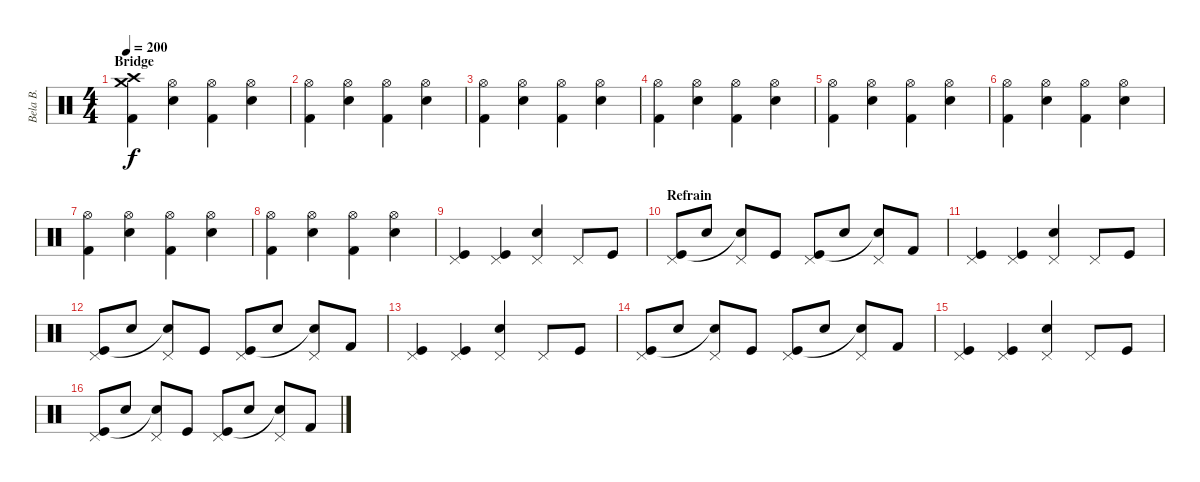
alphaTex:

\track ("Bela B. " "Bela B. ") {instrument percussion}
\staff {score}
\articulation defaults
\ts (4 4)
\section ("" "Bridge")
\tempo 200
\clef neutral
\ks c
("Crash high (hit)" "Crash medium (hit)" "Kick (hit) 2").4{dy f} ("Hi-Hat (open)" "Snare (hit) 2").4 ("Hi-Hat (open)" "Kick (hit) 2").4 ("Hi-Hat (open)" "Snare (hit) 2").4 |
("Hi-Hat (open)" "Kick (hit) 2").4 ("Hi-Hat (open)" "Snare (hit) 2").4 ("Hi-Hat (open)" "Kick (hit) 2").4 ("Hi-Hat (open)" "Snare (hit) 2").4 |
("Hi-Hat (open)" "Kick (hit) 2").4 ("Hi-Hat (open)" "Snare (hit) 2").4 ("Hi-Hat (open)" "Kick (hit) 2").4 ("Hi-Hat (open)" "Snare (hit) 2").4 |
("Hi-Hat (open)" "Kick (hit) 2").4 ("Hi-Hat (open)" "Snare (hit) 2").4 ("Hi-Hat (open)" "Kick (hit) 2").4 ("Hi-Hat (open)" "Snare (hit) 2").4 |
("Hi-Hat (open)" "Kick (hit) 2").4 ("Hi-Hat (open)" "Snare (hit) 2").4 ("Hi-Hat (open)" "Kick (hit) 2").4 ("Hi-Hat (open)" "Snare (hit) 2").4 |
("Hi-Hat (open)" "Kick (hit) 2").4 ("Hi-Hat (open)" "Snare (hit) 2").4 ("Hi-Hat (open)" "Kick (hit) 2").4 ("Hi-Hat (open)" "Snare (hit) 2").4 |
("Hi-Hat (open)" "Kick (hit) 2").4 ("Hi-Hat (open)" "Snare (hit) 2").4 ("Hi-Hat (open)" "Kick (hit) 2").4 ("Hi-Hat (open)" "Snare (hit) 2").4 |
("Hi-Hat (open)" "Kick (hit) 2").4 ("Hi-Hat (open)" "Snare (hit) 2").4 ("Hi-Hat (open)" "Kick (hit) 2").4 ("Hi-Hat (open)" "Snare (hit) 2").4 |
("Pedal Hi-Hat (hit)" "Kick (hit)").4 ("Pedal Hi-Hat (hit)" "Kick (hit)").4 ("Pedal Hi-Hat (hit)" "Snare (hit) 2").4 "Pedal Hi-Hat (hit)".8 "Kick (hit)".8 |
\section ("" "Refrain")
("Pedal Hi-Hat (hit)" "Kick (hit)").8 "Snare (hit) 2".8 ("Pedal Hi-Hat (hit)" "Electric Snare (hit)"{t}).8 "Kick (hit)".8 ("Pedal Hi-Hat (hit)" "Kick (hit)").8 "Snare (hit) 2".8 ("Pedal Hi-Hat (hit)" "Electric Snare (hit)"{t}).8 "Kick (hit) 2".8 |
("Pedal Hi-Hat (hit)" "Kick (hit)").4 ("Pedal Hi-Hat (hit)" "Kick (hit)").4 ("Pedal Hi-Hat (hit)" "Snare (hit) 2").4 "Pedal Hi-Hat (hit)".8 "Kick (hit)".8 |
("Pedal Hi-Hat (hit)" "Kick (hit)").8 "Snare (hit) 2".8 ("Pedal Hi-Hat (hit)" "Electric Snare (hit)"{t}).8 "Kick (hit)".8 ("Pedal Hi-Hat (hit)" "Kick (hit)").8 "Snare (hit) 2".8 ("Pedal Hi-Hat (hit)" "Electric Snare (hit)"{t}).8 "Kick (hit) 2".8 |
("Pedal Hi-Hat (hit)" "Kick (hit)").4 ("Pedal Hi-Hat (hit)" "Kick (hit)").4 ("Pedal Hi-Hat (hit)" "Snare (hit) 2").4 "Pedal Hi-Hat (hit)".8 "Kick (hit)".8 |
("Pedal Hi-Hat (hit)" "Kick (hit)").8 "Snare (hit) 2".8 ("Pedal Hi-Hat (hit)" "Electric Snare (hit)"{t}).8 "Kick (hit)".8 ("Pedal Hi-Hat (hit)" "Kick (hit)").8 "Snare (hit) 2".8 ("Pedal Hi-Hat (hit)" "Electric Snare (hit)"{t}).8 "Kick (hit) 2".8 |
("Pedal Hi-Hat (hit)" "Kick (hit)").4 ("Pedal Hi-Hat (hit)" "Kick (hit)").4 ("Pedal Hi-Hat (hit)" "Snare (hit) 2").4 "Pedal Hi-Hat (hit)".8 "Kick (hit)".8 |
("Pedal Hi-Hat (hit)" "Kick (hit)").8 "Snare (hit) 2".8 ("Pedal Hi-Hat (hit)" "Electric Snare (hit)"{t}).8 "Kick (hit)".8 ("Pedal Hi-Hat (hit)" "Kick (hit)").8 "Snare (hit) 2".8 ("Pedal Hi-Hat (hit)" "Electric Snare (hit)"{t}).8 "Kick (hit) 2".8
